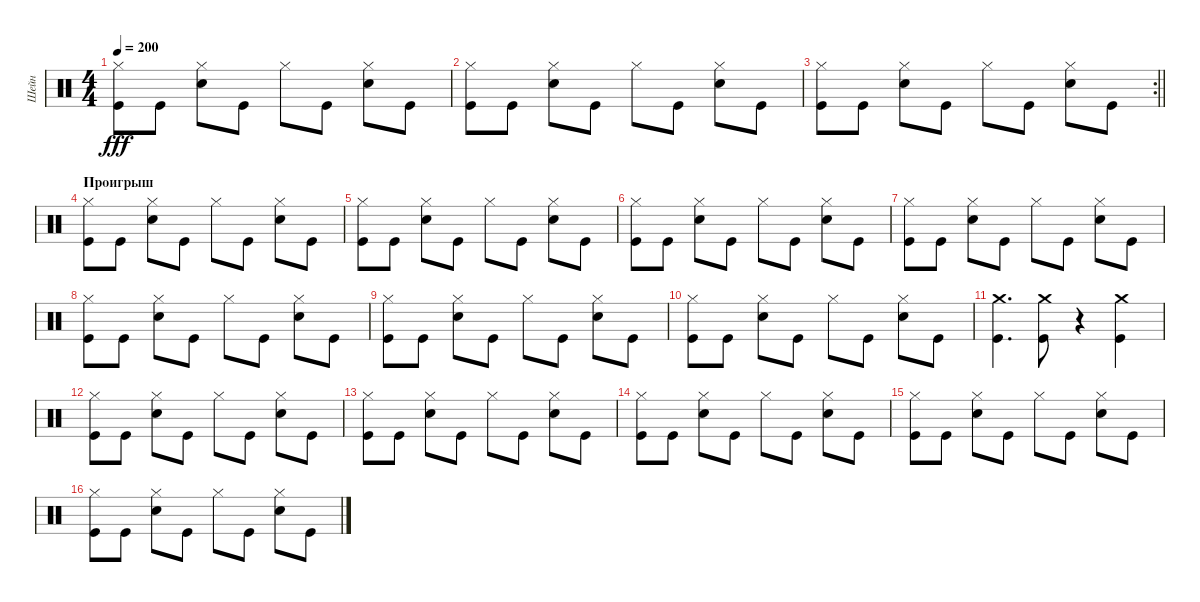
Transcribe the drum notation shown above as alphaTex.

\track ("Шейн" "Шейн") {instrument percussion}
\staff {score}
\articulation defaults
\ts (4 4)
\tempo 200
\clef neutral
\ks c
("Kick (hit)" "Hi-Hat (closed)").8{dy fff} "Kick (hit)".8 ("Snare (hit) 2" "Hi-Hat (closed)").8 "Kick (hit)".8 "Hi-Hat (closed)".8 "Kick (hit)".8 ("Snare (hit) 2" "Hi-Hat (closed)").8 "Kick (hit)".8 |
("Kick (hit)" "Hi-Hat (closed)").8 "Kick (hit)".8 ("Snare (hit) 2" "Hi-Hat (closed)").8 "Kick (hit)".8 "Hi-Hat (closed)".8 "Kick (hit)".8 ("Snare (hit) 2" "Hi-Hat (closed)").8 "Kick (hit)".8 |
\rc 2
\barLineRight lightlight
("Kick (hit)" "Hi-Hat (closed)").8 "Kick (hit)".8 ("Snare (hit) 2" "Hi-Hat (closed)").8 "Kick (hit)".8 "Hi-Hat (closed)".8 "Kick (hit)".8 ("Snare (hit) 2" "Hi-Hat (closed)").8 "Kick (hit)".8 |
\section ("" "Проигрыш")
("Kick (hit)" "Hi-Hat (closed)").8 "Kick (hit)".8 ("Snare (hit) 2" "Hi-Hat (closed)").8 "Kick (hit)".8 "Hi-Hat (closed)".8 "Kick (hit)".8 ("Snare (hit) 2" "Hi-Hat (closed)").8 "Kick (hit)".8 |
("Kick (hit)" "Hi-Hat (closed)").8 "Kick (hit)".8 ("Snare (hit) 2" "Hi-Hat (closed)").8 "Kick (hit)".8 "Hi-Hat (closed)".8 "Kick (hit)".8 ("Snare (hit) 2" "Hi-Hat (closed)").8 "Kick (hit)".8 |
("Kick (hit)" "Hi-Hat (closed)").8 "Kick (hit)".8 ("Snare (hit) 2" "Hi-Hat (closed)").8 "Kick (hit)".8 "Hi-Hat (closed)".8 "Kick (hit)".8 ("Snare (hit) 2" "Hi-Hat (closed)").8 "Kick (hit)".8 |
("Kick (hit)" "Hi-Hat (closed)").8 "Kick (hit)".8 ("Snare (hit) 2" "Hi-Hat (closed)").8 "Kick (hit)".8 "Hi-Hat (closed)".8 "Kick (hit)".8 ("Snare (hit) 2" "Hi-Hat (closed)").8 "Kick (hit)".8 |
("Kick (hit)" "Hi-Hat (closed)").8 "Kick (hit)".8 ("Snare (hit) 2" "Hi-Hat (closed)").8 "Kick (hit)".8 "Hi-Hat (closed)".8 "Kick (hit)".8 ("Snare (hit) 2" "Hi-Hat (closed)").8 "Kick (hit)".8 |
("Kick (hit)" "Hi-Hat (closed)").8 "Kick (hit)".8 ("Snare (hit) 2" "Hi-Hat (closed)").8 "Kick (hit)".8 "Hi-Hat (closed)".8 "Kick (hit)".8 ("Snare (hit) 2" "Hi-Hat (closed)").8 "Kick (hit)".8 |
("Kick (hit)" "Hi-Hat (closed)").8 "Kick (hit)".8 ("Snare (hit) 2" "Hi-Hat (closed)").8 "Kick (hit)".8 "Hi-Hat (closed)".8 "Kick (hit)".8 ("Snare (hit) 2" "Hi-Hat (closed)").8 "Kick (hit)".8 |
("Kick (hit)" "Crash medium (hit)").4{d} ("Kick (hit)" "Crash medium (hit)").8 r.4 ("Crash medium (hit)" "Kick (hit)").4 |
("Kick (hit)" "Hi-Hat (closed)").8 "Kick (hit)".8 ("Snare (hit) 2" "Hi-Hat (closed)").8 "Kick (hit)".8 "Hi-Hat (closed)".8 "Kick (hit)".8 ("Snare (hit) 2" "Hi-Hat (closed)").8 "Kick (hit)".8 |
("Kick (hit)" "Hi-Hat (closed)").8 "Kick (hit)".8 ("Snare (hit) 2" "Hi-Hat (closed)").8 "Kick (hit)".8 "Hi-Hat (closed)".8 "Kick (hit)".8 ("Snare (hit) 2" "Hi-Hat (closed)").8 "Kick (hit)".8 |
("Kick (hit)" "Hi-Hat (closed)").8 "Kick (hit)".8 ("Snare (hit) 2" "Hi-Hat (closed)").8 "Kick (hit)".8 "Hi-Hat (closed)".8 "Kick (hit)".8 ("Snare (hit) 2" "Hi-Hat (closed)").8 "Kick (hit)".8 |
("Kick (hit)" "Hi-Hat (closed)").8 "Kick (hit)".8 ("Snare (hit) 2" "Hi-Hat (closed)").8 "Kick (hit)".8 "Hi-Hat (closed)".8 "Kick (hit)".8 ("Snare (hit) 2" "Hi-Hat (closed)").8 "Kick (hit)".8 |
("Kick (hit)" "Hi-Hat (closed)").8 "Kick (hit)".8 ("Snare (hit) 2" "Hi-Hat (closed)").8 "Kick (hit)".8 "Hi-Hat (closed)".8 "Kick (hit)".8 ("Snare (hit) 2" "Hi-Hat (closed)").8 "Kick (hit)".8
